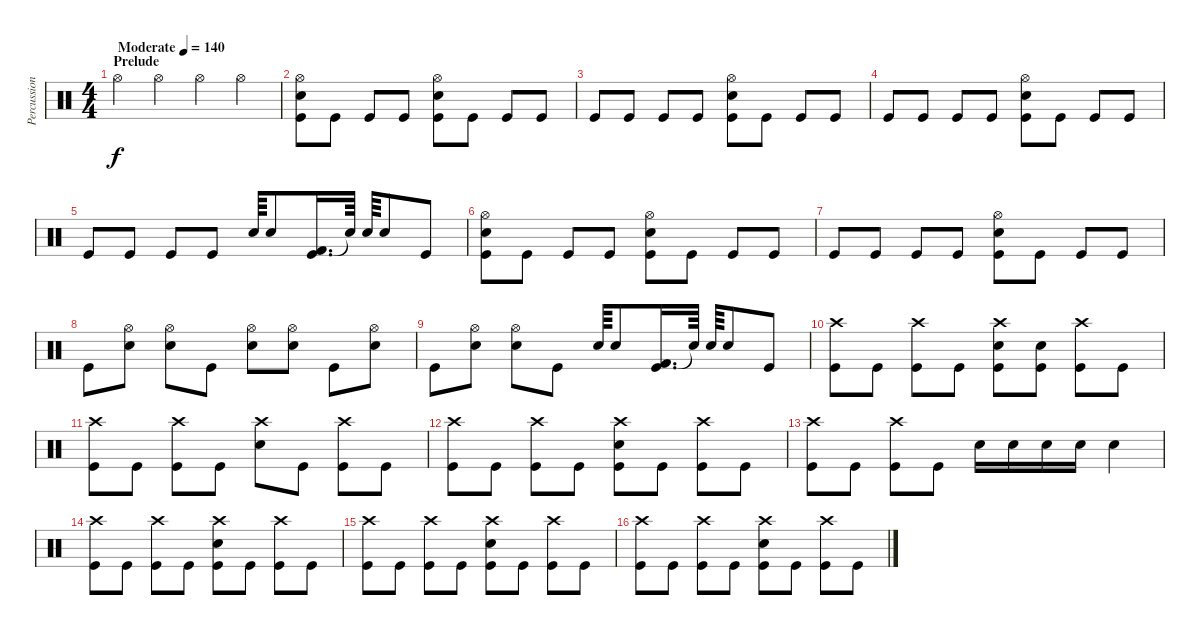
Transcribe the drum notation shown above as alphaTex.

\track ("Percussion" "Percussion") {instrument percussion}
\staff {score}
\articulation defaults
\ts (4 4)
\section ("" "Prelude")
\tempo (140 "Moderate")
\clef neutral
\ks c "Hi-Hat (open)".4{dy f} "Hi-Hat (open)".4 "Hi-Hat (open)".4 "Hi-Hat (open)".4
|
("Electric Snare (hit)" "Hi-Hat (open)" "Kick (hit)").8 "Kick (hit)".8 "Kick (hit)".8 "Kick (hit)".8 ("Electric Snare (hit)" "Hi-Hat (open)" "Kick (hit)").8 "Kick (hit)".8 "Kick (hit)".8 "Kick (hit)".8 |
"Kick (hit)".8 "Kick (hit)".8 "Kick (hit)".8 "Kick (hit)".8 ("Hi-Hat (open)" "Electric Snare (hit)" "Kick (hit)").8 "Kick (hit)".8 "Kick (hit)".8 "Kick (hit)".8 |
"Kick (hit)".8 "Kick (hit)".8 "Kick (hit)".8 "Kick (hit)".8 ("Hi-Hat (open)" "Electric Snare (hit)" "Kick (hit)").8 "Kick (hit)".8 "Kick (hit)".8 "Kick (hit)".8 |
"Kick (hit)".8 "Kick (hit)".8 "Kick (hit)".8 "Kick (hit)".8 "Snare (hit) 2".64 "Snare (hit) 2".8 ("Kick (hit) 2" "Kick (hit)").16{d} "Snare (hit)"{t}.64 "Snare (hit) 2".64 "Snare (hit) 2".8 "Kick (hit)".8 |
("Electric Snare (hit)" "Hi-Hat (open)" "Kick (hit)").8 "Kick (hit)".8 "Kick (hit)".8 "Kick (hit)".8 ("Electric Snare (hit)" "Hi-Hat (open)" "Kick (hit)").8 "Kick (hit)".8 "Kick (hit)".8 "Kick (hit)".8 |
"Kick (hit)".8 "Kick (hit)".8 "Kick (hit)".8 "Kick (hit)".8 ("Hi-Hat (open)" "Electric Snare (hit)" "Kick (hit)").8 "Kick (hit)".8 "Kick (hit)".8 "Kick (hit)".8 |
"Kick (hit)".8 ("Hi-Hat (open)" "Snare (hit) 2").8 ("Hi-Hat (open)" "Snare (hit) 2").8 "Kick (hit)".8 ("Hi-Hat (open)" "Snare (hit) 2").8 ("Hi-Hat (open)" "Snare (hit) 2").8 "Kick (hit)".8 ("Hi-Hat (open)" "Snare (hit) 2").8 |
"Kick (hit)".8 ("Hi-Hat (open)" "Snare (hit) 2").8 ("Hi-Hat (open)" "Snare (hit) 2").8 "Kick (hit)".8 "Snare (hit) 2".64 "Snare (hit) 2".8 ("Kick (hit) 2" "Kick (hit)").16{d} "Snare (hit)"{t}.64 "Snare (hit) 2".64 "Snare (hit) 2".8 "Kick (hit)".8 |
("Crash high (hit)" "Kick (hit)").8 "Kick (hit)".8 ("Crash high (hit)" "Kick (hit)").8 "Kick (hit)".8 ("Crash high (hit)" "Electric Snare (hit)" "Kick (hit)").8 ("Electric Snare (hit)" "Kick (hit)").8 ("Crash high (hit)" "Kick (hit)").8 "Kick (hit)".8 |
("Crash high (hit)" "Kick (hit)").8 "Kick (hit)".8 ("Crash high (hit)" "Kick (hit)").8 "Kick (hit)".8 ("Crash high (hit)" "Electric Snare (hit)").8 "Kick (hit)".8 ("Crash high (hit)" "Kick (hit)").8 "Kick (hit)".8 |
("Crash high (hit)" "Kick (hit)").8 "Kick (hit)".8 ("Crash high (hit)" "Kick (hit)").8 "Kick (hit)".8 ("Crash high (hit)" "Electric Snare (hit)" "Kick (hit)").8 "Kick (hit)".8 ("Crash high (hit)" "Kick (hit)").8 "Kick (hit)".8 |
("Crash high (hit)" "Kick (hit)").8 "Kick (hit)".8 ("Crash high (hit)" "Kick (hit)").8 "Kick (hit)".8 "Electric Snare (hit)".16 "Electric Snare (hit)".16 "Electric Snare (hit)".16 "Electric Snare (hit)".16 "Electric Snare (hit)".4 |
("Crash high (hit)" "Kick (hit)").8 "Kick (hit)".8 ("Crash high (hit)" "Kick (hit)").8 "Kick (hit)".8 ("Crash high (hit)" "Electric Snare (hit)" "Kick (hit)").8 "Kick (hit)".8 ("Crash high (hit)" "Kick (hit)").8 "Kick (hit)".8 |
("Crash high (hit)" "Kick (hit)").8 "Kick (hit)".8 ("Crash high (hit)" "Kick (hit)").8 "Kick (hit)".8 ("Crash high (hit)" "Electric Snare (hit)" "Kick (hit)").8 "Kick (hit)".8 ("Crash high (hit)" "Kick (hit)").8 "Kick (hit)".8 |
("Crash high (hit)" "Kick (hit)").8 "Kick (hit)".8 ("Crash high (hit)" "Kick (hit)").8 "Kick (hit)".8 ("Crash high (hit)" "Electric Snare (hit)" "Kick (hit)").8 "Kick (hit)".8 ("Crash high (hit)" "Kick (hit)").8 "Kick (hit)".8
